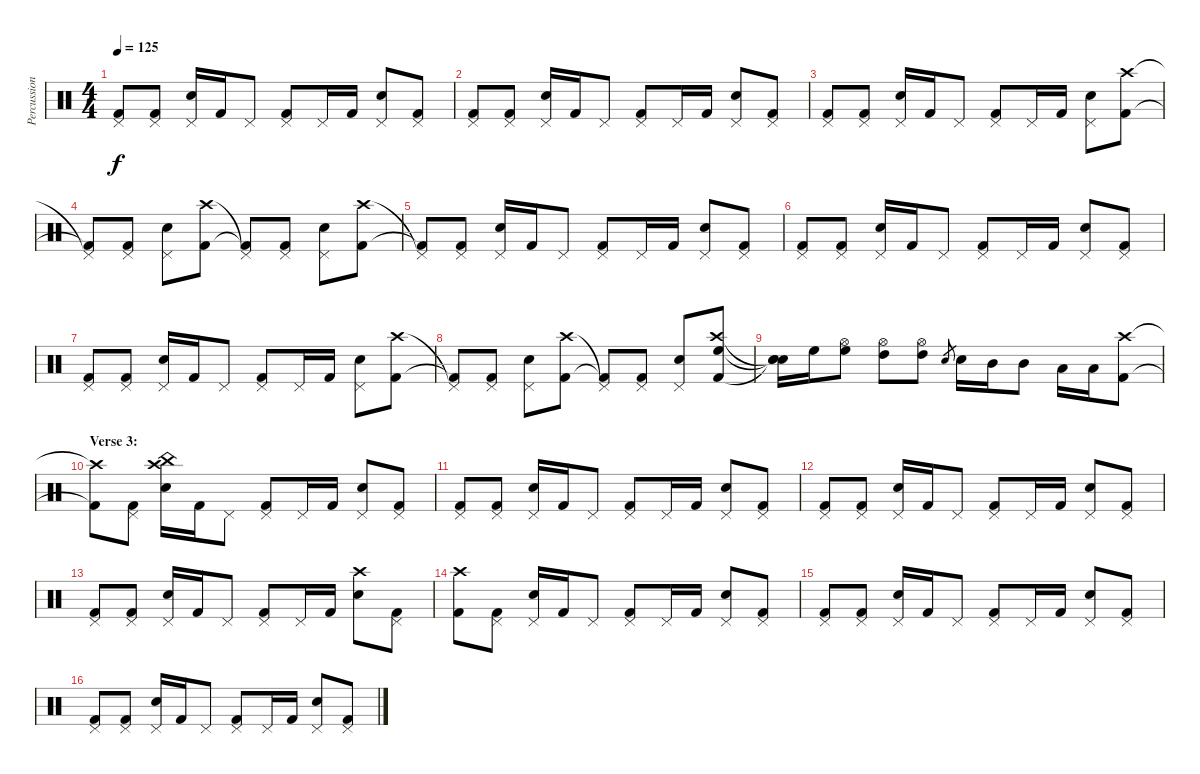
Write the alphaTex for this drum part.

\track ("Percussion" "Percussion") {instrument percussion}
\staff {score}
\articulation defaults
\ts (4 4)
\tempo 125
\clef neutral
\ks c
("Pedal Hi-Hat (hit)"{t} "Kick (hit) 2"{t}).8{dy f} ("Pedal Hi-Hat (hit)" "Kick (hit) 2").8 ("Pedal Hi-Hat (hit)" "Electric Snare (hit)").16 "Kick (hit) 2".16 "Pedal Hi-Hat (hit)".8 ("Pedal Hi-Hat (hit)" "Kick (hit) 2").8 "Pedal Hi-Hat (hit)".16 "Kick (hit) 2".16 ("Pedal Hi-Hat (hit)" "Electric Snare (hit)").8 ("Pedal Hi-Hat (hit)" "Kick (hit) 2").8 |
("Pedal Hi-Hat (hit)" "Kick (hit) 2").8 ("Pedal Hi-Hat (hit)" "Kick (hit) 2").8 ("Pedal Hi-Hat (hit)" "Electric Snare (hit)").16 "Kick (hit) 2".16 "Pedal Hi-Hat (hit)".8 ("Pedal Hi-Hat (hit)" "Kick (hit) 2").8 "Pedal Hi-Hat (hit)".16 "Kick (hit) 2".16 ("Pedal Hi-Hat (hit)" "Electric Snare (hit)").8 ("Pedal Hi-Hat (hit)" "Kick (hit) 2").8 |
("Pedal Hi-Hat (hit)" "Kick (hit) 2").8 ("Pedal Hi-Hat (hit)" "Kick (hit) 2").8 ("Pedal Hi-Hat (hit)" "Electric Snare (hit)").16 "Kick (hit) 2".16 "Pedal Hi-Hat (hit)".8 ("Pedal Hi-Hat (hit)" "Kick (hit) 2").8 "Pedal Hi-Hat (hit)".16 "Kick (hit) 2".16 ("Pedal Hi-Hat (hit)" "Electric Snare (hit)").8 ("Crash high (hit)" "Kick (hit) 2").8 |
("Pedal Hi-Hat (hit)"{t} "Kick (hit) 2"{t}).8 ("Pedal Hi-Hat (hit)" "Kick (hit) 2").8 ("Pedal Hi-Hat (hit)" "Electric Snare (hit)").8 ("Crash high (hit)" "Kick (hit) 2").8 ("Pedal Hi-Hat (hit)"{t} "Kick (hit) 2"{t}).8 ("Pedal Hi-Hat (hit)" "Kick (hit) 2").8 ("Pedal Hi-Hat (hit)" "Electric Snare (hit)").8 ("Crash high (hit)" "Kick (hit) 2").8 |
("Pedal Hi-Hat (hit)"{t} "Kick (hit) 2"{t}).8 ("Pedal Hi-Hat (hit)" "Kick (hit) 2").8 ("Pedal Hi-Hat (hit)" "Electric Snare (hit)").16 "Kick (hit) 2".16 "Pedal Hi-Hat (hit)".8 ("Pedal Hi-Hat (hit)" "Kick (hit) 2").8 "Pedal Hi-Hat (hit)".16 "Kick (hit) 2".16 ("Pedal Hi-Hat (hit)" "Electric Snare (hit)").8 ("Pedal Hi-Hat (hit)" "Kick (hit) 2").8 |
("Pedal Hi-Hat (hit)" "Kick (hit) 2").8 ("Pedal Hi-Hat (hit)" "Kick (hit) 2").8 ("Pedal Hi-Hat (hit)" "Electric Snare (hit)").16 "Kick (hit) 2".16 "Pedal Hi-Hat (hit)".8 ("Pedal Hi-Hat (hit)" "Kick (hit) 2").8 "Pedal Hi-Hat (hit)".16 "Kick (hit) 2".16 ("Pedal Hi-Hat (hit)" "Electric Snare (hit)").8 ("Pedal Hi-Hat (hit)" "Kick (hit) 2").8 |
("Pedal Hi-Hat (hit)" "Kick (hit) 2").8 ("Pedal Hi-Hat (hit)" "Kick (hit) 2").8 ("Pedal Hi-Hat (hit)" "Electric Snare (hit)").16 "Kick (hit) 2".16 "Pedal Hi-Hat (hit)".8 ("Pedal Hi-Hat (hit)" "Kick (hit) 2").8 "Pedal Hi-Hat (hit)".16 "Kick (hit) 2".16 ("Pedal Hi-Hat (hit)" "Electric Snare (hit)").8 ("Crash high (hit)" "Kick (hit) 2").8 |
("Pedal Hi-Hat (hit)"{t} "Kick (hit) 2"{t}).8 ("Pedal Hi-Hat (hit)" "Kick (hit) 2").8 ("Pedal Hi-Hat (hit)" "Electric Snare (hit)").8 ("Crash high (hit)" "Kick (hit) 2").8 ("Pedal Hi-Hat (hit)"{t} "Kick (hit) 2"{t}).8 ("Pedal Hi-Hat (hit)" "Kick (hit) 2").8 ("Pedal Hi-Hat (hit)" "Electric Snare (hit)").8 ("Crash high (hit)" "High Floor Tom (hit)" "Kick (hit) 2").8 |
("Snare (hit)"{t} "Snare (hit)"{t} "Snare (hit)"{t}).16 "High Floor Tom (hit)".16 ("Hi-Hat (open)" "High Floor Tom (hit)").8 ("Hi-Hat (open)" "High Tom (hit)").8 ("Hi-Hat (open)" "High Tom (hit)").8 "Electric Snare (hit)".8{gr} "Electric Snare (hit)".16 "Mid Tom (hit)".16 "Mid Tom (hit)".8 "Low Tom (hit)".16 "Low Tom (hit)".16 ("Crash high (hit)" "Kick (hit) 2").8 |
\section ("" "Verse 3:")
("Crash high (hit)"{t} "Kick (hit) 2"{t}).8 ("Pedal Hi-Hat (hit)" "Kick (hit) 2").8 ("Crash high (hit)" "China (hit)" "Electric Snare (hit)").16 "Kick (hit) 2".16 "Pedal Hi-Hat (hit)".8 ("Pedal Hi-Hat (hit)" "Kick (hit) 2").8 "Pedal Hi-Hat (hit)".16 "Kick (hit) 2".16 ("Pedal Hi-Hat (hit)" "Electric Snare (hit)").8 ("Pedal Hi-Hat (hit)" "Kick (hit) 2").8 |
("Pedal Hi-Hat (hit)" "Kick (hit) 2").8 ("Pedal Hi-Hat (hit)" "Kick (hit) 2").8 ("Pedal Hi-Hat (hit)" "Electric Snare (hit)").16 "Kick (hit) 2".16 "Pedal Hi-Hat (hit)".8 ("Pedal Hi-Hat (hit)" "Kick (hit) 2").8 "Pedal Hi-Hat (hit)".16 "Kick (hit) 2".16 ("Pedal Hi-Hat (hit)" "Electric Snare (hit)").8 ("Pedal Hi-Hat (hit)" "Kick (hit) 2").8 |
("Pedal Hi-Hat (hit)" "Kick (hit) 2").8 ("Pedal Hi-Hat (hit)" "Kick (hit) 2").8 ("Pedal Hi-Hat (hit)" "Electric Snare (hit)").16 "Kick (hit) 2".16 "Pedal Hi-Hat (hit)".8 ("Pedal Hi-Hat (hit)" "Kick (hit) 2").8 "Pedal Hi-Hat (hit)".16 "Kick (hit) 2".16 ("Pedal Hi-Hat (hit)" "Electric Snare (hit)").8 ("Pedal Hi-Hat (hit)" "Kick (hit) 2").8 |
("Pedal Hi-Hat (hit)" "Kick (hit) 2").8 ("Pedal Hi-Hat (hit)" "Kick (hit) 2").8 ("Pedal Hi-Hat (hit)" "Electric Snare (hit)").16 "Kick (hit) 2".16 "Pedal Hi-Hat (hit)".8 ("Pedal Hi-Hat (hit)" "Kick (hit) 2").8 "Pedal Hi-Hat (hit)".16 "Kick (hit) 2".16 ("Crash high (hit)" "Electric Snare (hit)").8 ("Pedal Hi-Hat (hit)" "Kick (hit) 2").8 |
("Crash high (hit)" "Kick (hit) 2").8 ("Pedal Hi-Hat (hit)" "Kick (hit) 2").8 ("Pedal Hi-Hat (hit)" "Electric Snare (hit)").16 "Kick (hit) 2".16 "Pedal Hi-Hat (hit)".8 ("Pedal Hi-Hat (hit)" "Kick (hit) 2").8 "Pedal Hi-Hat (hit)".16 "Kick (hit) 2".16 ("Pedal Hi-Hat (hit)" "Electric Snare (hit)").8 ("Pedal Hi-Hat (hit)" "Kick (hit) 2").8 |
("Pedal Hi-Hat (hit)" "Kick (hit) 2").8 ("Pedal Hi-Hat (hit)" "Kick (hit) 2").8 ("Pedal Hi-Hat (hit)" "Electric Snare (hit)").16 "Kick (hit) 2".16 "Pedal Hi-Hat (hit)".8 ("Pedal Hi-Hat (hit)" "Kick (hit) 2").8 "Pedal Hi-Hat (hit)".16 "Kick (hit) 2".16 ("Pedal Hi-Hat (hit)" "Electric Snare (hit)").8 ("Pedal Hi-Hat (hit)" "Kick (hit) 2").8 |
("Pedal Hi-Hat (hit)" "Kick (hit) 2").8 ("Pedal Hi-Hat (hit)" "Kick (hit) 2").8 ("Pedal Hi-Hat (hit)" "Electric Snare (hit)").16 "Kick (hit) 2".16 "Pedal Hi-Hat (hit)".8 ("Pedal Hi-Hat (hit)" "Kick (hit) 2").8 "Pedal Hi-Hat (hit)".16 "Kick (hit) 2".16 ("Pedal Hi-Hat (hit)" "Electric Snare (hit)").8 ("Pedal Hi-Hat (hit)" "Kick (hit) 2").8
